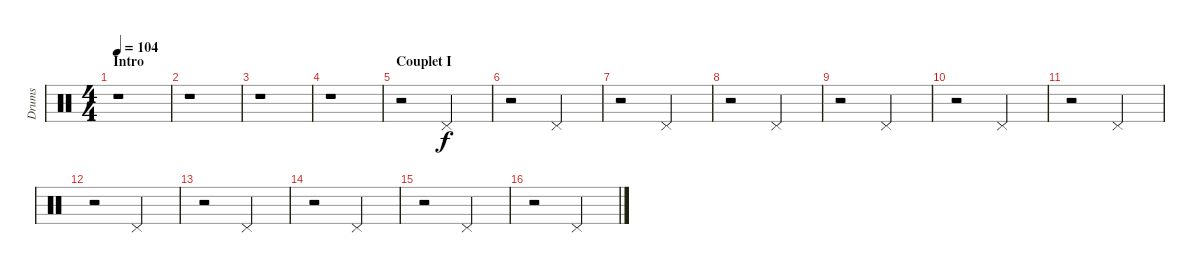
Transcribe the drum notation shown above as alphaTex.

\track ("Drums" "Drums") {instrument percussion}
\staff {score}
\articulation defaults
\ts (4 4)
\section ("" "Intro")
\tempo 104
\clef neutral
\ks c
r.1{dy f} |
r.1 |
r.1 |
r.1 |
\section ("" "Couplet I")
r.2 "Pedal Hi-Hat (hit)".2 |
r.2 "Pedal Hi-Hat (hit)".2 |
r.2 "Pedal Hi-Hat (hit)".2 |
r.2 "Pedal Hi-Hat (hit)".2 |
r.2 "Pedal Hi-Hat (hit)".2 |
r.2 "Pedal Hi-Hat (hit)".2 |
r.2 "Pedal Hi-Hat (hit)".2 |
r.2 "Pedal Hi-Hat (hit)".2 |
r.2 "Pedal Hi-Hat (hit)".2 |
r.2 "Pedal Hi-Hat (hit)".2 |
r.2 "Pedal Hi-Hat (hit)".2 |
r.2 "Pedal Hi-Hat (hit)".2
